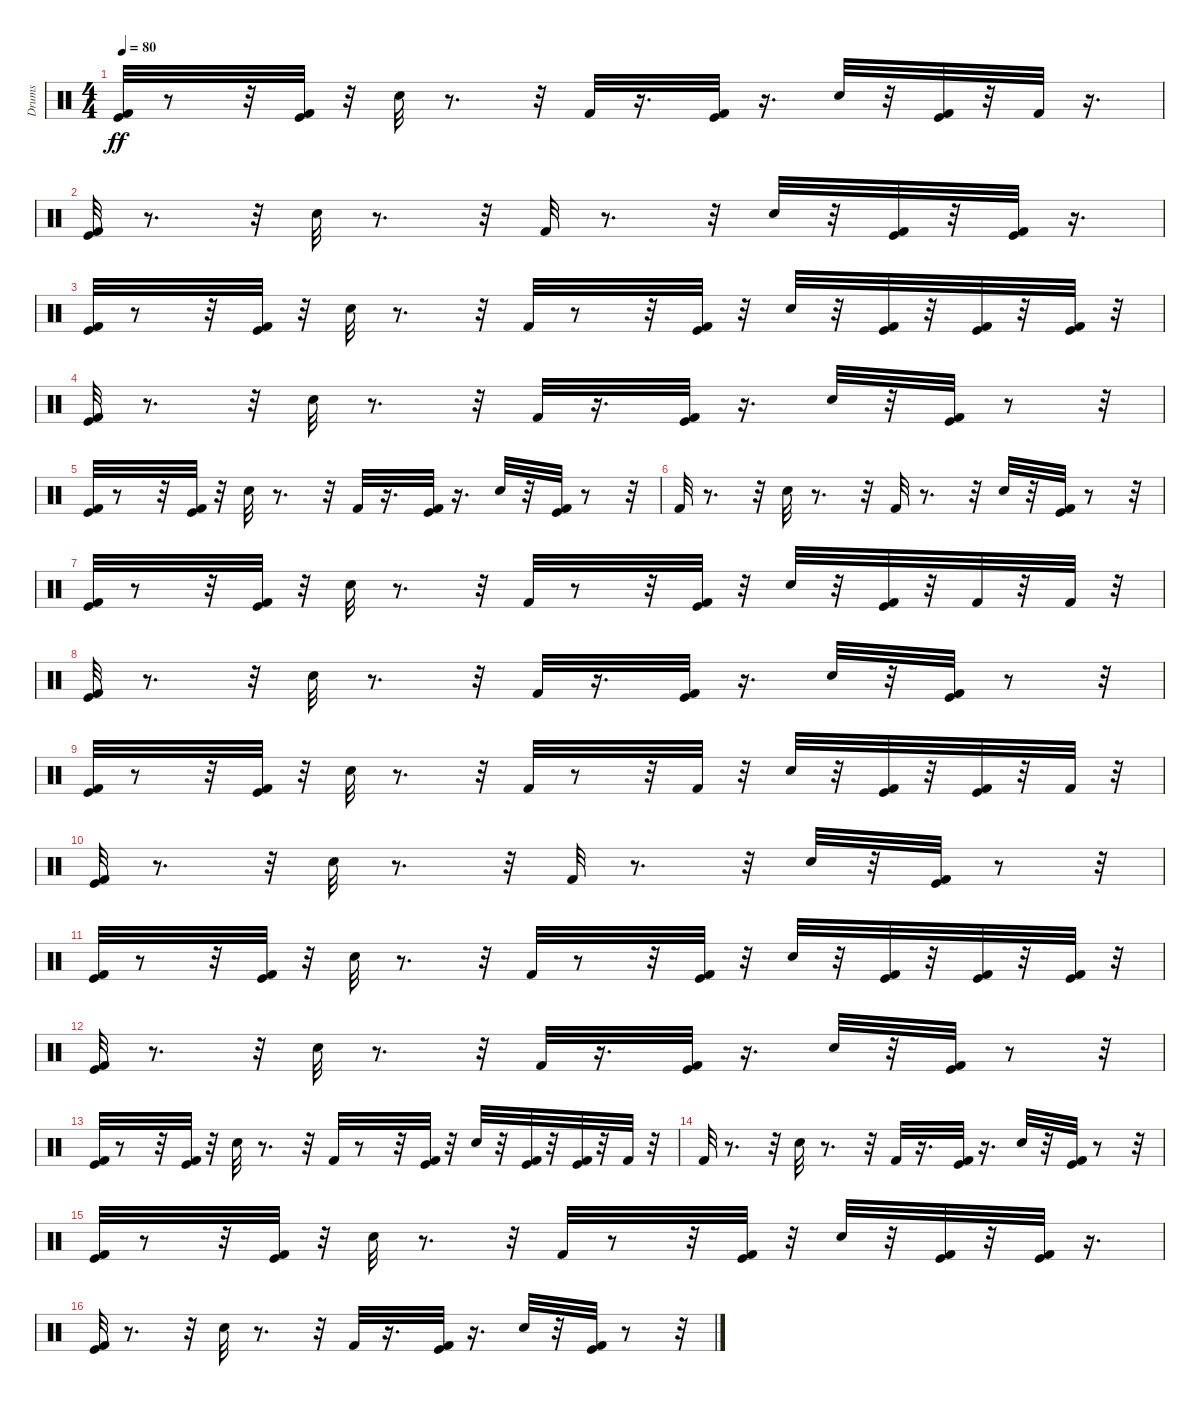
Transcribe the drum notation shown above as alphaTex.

\track ("Drums" "Drums") {instrument percussion}
\staff {score}
\articulation defaults
\ts (4 4)
\tempo 80
\clef neutral
\ks c
("Kick (hit)" "Kick (hit) 2").32{dy ff} r.8 r.32 ("Kick (hit)" "Kick (hit) 2").32 r.32 "Hand Clap (hit)".32 r.8{d} r.32 "Kick (hit) 2".32 r.16{d} ("Kick (hit)" "Kick (hit) 2").32 r.16{d} "Hand Clap (hit)".32 r.32 ("Kick (hit)" "Kick (hit) 2").32 r.32 "Kick (hit) 2".32 r.16{d} |
("Kick (hit)" "Kick (hit) 2").32 r.8{d} r.32 "Hand Clap (hit)".32 r.8{d} r.32 "Kick (hit) 2".32 r.8{d} r.32 "Hand Clap (hit)".32 r.32 ("Kick (hit)" "Kick (hit) 2").32 r.32 ("Kick (hit)" "Kick (hit) 2").32 r.16{d} |
("Kick (hit)" "Kick (hit) 2").32 r.8 r.32 ("Kick (hit)" "Kick (hit) 2").32 r.32 "Hand Clap (hit)".32 r.8{d} r.32 "Kick (hit) 2".32 r.8 r.32 ("Kick (hit)" "Kick (hit) 2").32 r.32 "Hand Clap (hit)".32 r.32 ("Kick (hit)" "Kick (hit) 2").32 r.32 ("Kick (hit)" "Kick (hit) 2").32 r.32 ("Kick (hit)" "Kick (hit) 2").32 r.32 |
("Kick (hit)" "Kick (hit) 2").32 r.8{d} r.32 "Hand Clap (hit)".32 r.8{d} r.32 "Kick (hit) 2".32 r.16{d} ("Kick (hit)" "Kick (hit) 2").32 r.16{d} "Hand Clap (hit)".32 r.32 ("Kick (hit)" "Kick (hit) 2").32 r.8 r.32 |
("Kick (hit)" "Kick (hit) 2").32 r.8 r.32 ("Kick (hit)" "Kick (hit) 2").32 r.32 "Hand Clap (hit)".32 r.8{d} r.32 "Kick (hit) 2".32 r.16{d} ("Kick (hit)" "Kick (hit) 2").32 r.16{d} "Hand Clap (hit)".32 r.32 ("Kick (hit)" "Kick (hit) 2").32 r.8 r.32 |
"Kick (hit) 2".32 r.8{d} r.32 "Hand Clap (hit)".32 r.8{d} r.32 "Kick (hit) 2".32 r.8{d} r.32 "Hand Clap (hit)".32 r.32 ("Kick (hit)" "Kick (hit) 2").32 r.8 r.32 |
("Kick (hit)" "Kick (hit) 2").32 r.8 r.32 ("Kick (hit)" "Kick (hit) 2").32 r.32 "Hand Clap (hit)".32 r.8{d} r.32 "Kick (hit) 2".32 r.8 r.32 ("Kick (hit)" "Kick (hit) 2").32 r.32 "Hand Clap (hit)".32 r.32 ("Kick (hit)" "Kick (hit) 2").32 r.32 "Kick (hit) 2".32 r.32 "Kick (hit) 2".32 r.32 |
("Kick (hit)" "Kick (hit) 2").32 r.8{d} r.32 "Hand Clap (hit)".32 r.8{d} r.32 "Kick (hit) 2".32 r.16{d} ("Kick (hit)" "Kick (hit) 2").32 r.16{d} "Hand Clap (hit)".32 r.32 ("Kick (hit)" "Kick (hit) 2").32 r.8 r.32 |
("Kick (hit)" "Kick (hit) 2").32 r.8 r.32 ("Kick (hit)" "Kick (hit) 2").32 r.32 "Hand Clap (hit)".32 r.8{d} r.32 "Kick (hit) 2".32 r.8 r.32 "Kick (hit) 2".32 r.32 "Hand Clap (hit)".32 r.32 ("Kick (hit)" "Kick (hit) 2").32 r.32 ("Kick (hit)" "Kick (hit) 2").32 r.32 "Kick (hit) 2".32 r.32 |
("Kick (hit)" "Kick (hit) 2").32 r.8{d} r.32 "Hand Clap (hit)".32 r.8{d} r.32 "Kick (hit) 2".32 r.8{d} r.32 "Hand Clap (hit)".32 r.32 ("Kick (hit)" "Kick (hit) 2").32 r.8 r.32 |
("Kick (hit)" "Kick (hit) 2").32 r.8 r.32 ("Kick (hit)" "Kick (hit) 2").32 r.32 "Hand Clap (hit)".32 r.8{d} r.32 "Kick (hit) 2".32 r.8 r.32 ("Kick (hit)" "Kick (hit) 2").32 r.32 "Hand Clap (hit)".32 r.32 ("Kick (hit)" "Kick (hit) 2").32 r.32 ("Kick (hit)" "Kick (hit) 2").32 r.32 ("Kick (hit)" "Kick (hit) 2").32 r.32 |
("Kick (hit)" "Kick (hit) 2").32 r.8{d} r.32 "Hand Clap (hit)".32 r.8{d} r.32 "Kick (hit) 2".32 r.16{d} ("Kick (hit)" "Kick (hit) 2").32 r.16{d} "Hand Clap (hit)".32 r.32 ("Kick (hit)" "Kick (hit) 2").32 r.8 r.32 |
("Kick (hit)" "Kick (hit) 2").32 r.8 r.32 ("Kick (hit)" "Kick (hit) 2").32 r.32 "Hand Clap (hit)".32 r.8{d} r.32 "Kick (hit) 2".32 r.8 r.32 ("Kick (hit)" "Kick (hit) 2").32 r.32 "Hand Clap (hit)".32 r.32 ("Kick (hit)" "Kick (hit) 2").32 r.32 ("Kick (hit)" "Kick (hit) 2").32 r.32 "Kick (hit) 2".32 r.32 |
"Kick (hit) 2".32 r.8{d} r.32 "Hand Clap (hit)".32 r.8{d} r.32 "Kick (hit) 2".32 r.16{d} ("Kick (hit)" "Kick (hit) 2").32 r.16{d} "Hand Clap (hit)".32 r.32 ("Kick (hit)" "Kick (hit) 2").32 r.8 r.32 |
("Kick (hit)" "Kick (hit) 2").32 r.8 r.32 ("Kick (hit)" "Kick (hit) 2").32 r.32 "Hand Clap (hit)".32 r.8{d} r.32 "Kick (hit) 2".32 r.8 r.32 ("Kick (hit)" "Kick (hit) 2").32 r.32 "Hand Clap (hit)".32 r.32 ("Kick (hit)" "Kick (hit) 2").32 r.32 ("Kick (hit)" "Kick (hit) 2").32 r.16{d} |
("Kick (hit)" "Kick (hit) 2").32 r.8{d} r.32 "Hand Clap (hit)".32 r.8{d} r.32 "Kick (hit) 2".32 r.16{d} ("Kick (hit)" "Kick (hit) 2").32 r.16{d} "Hand Clap (hit)".32 r.32 ("Kick (hit)" "Kick (hit) 2").32 r.8 r.32
